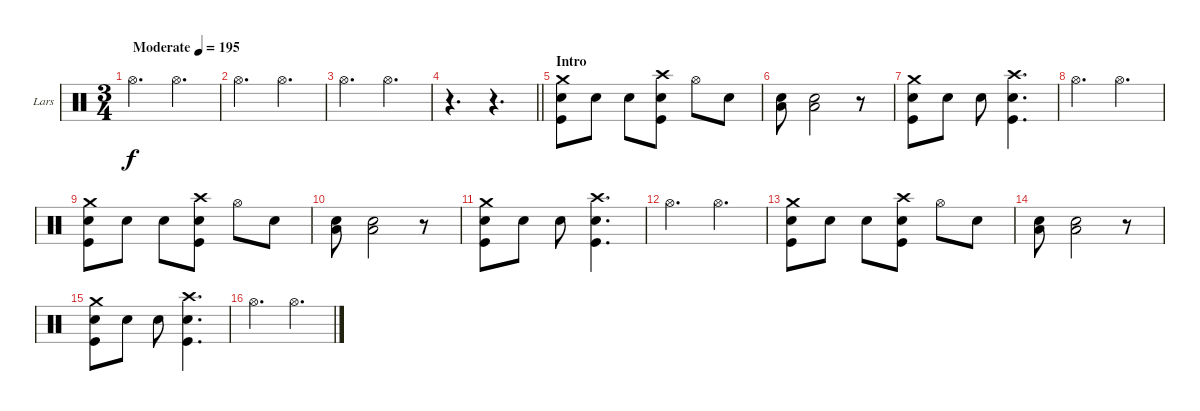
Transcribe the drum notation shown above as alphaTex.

\bracketExtendMode groupsimilarinstruments
\firstSystemTrackNameOrientation horizontal
\otherSystemsTrackNameOrientation horizontal
\track ("Drumkit" "Lars") {instrument percussion}
\staff {score}
\articulation defaults
\ts (3 4)
\beaming (8 2 2 2)
\tempo (195 "Moderate")
\clef neutral
\ks c "Hi-Hat (open)".4{d dy f} "Hi-Hat (open)".4{d}
|
"Hi-Hat (open)".4{d} "Hi-Hat (open)".4{d} |
"Hi-Hat (open)".4{d} "Hi-Hat (open)".4{d} |
\barLineRight lightlight
r.4{d} r.4{d} |
\section ("" "Intro")
("Crash medium (hit)" "Snare (hit) 2" "Kick (hit)").8 "Snare (hit) 2".8 "Snare (hit) 2".8 ("Crash high (hit)" "Snare (hit) 2" "Kick (hit)").8 "Hi-Hat (open)".8 "Snare (hit) 2".8 |
("Snare (hit) 2" "Low Tom (hit)").8 ("Snare (hit) 2" "Low Tom (hit)").2 r.8 |
("Crash medium (hit)" "Snare (hit) 2" "Kick (hit)").8 "Snare (hit) 2".8 "Snare (hit) 2".8 ("Crash high (hit)" "Snare (hit) 2" "Kick (hit)").4{d} |
"Hi-Hat (open)".4{d} "Hi-Hat (open)".4{d} |
("Crash medium (hit)" "Snare (hit) 2" "Kick (hit)").8 "Snare (hit) 2".8 "Snare (hit) 2".8 ("Crash high (hit)" "Snare (hit) 2" "Kick (hit)").8 "Hi-Hat (open)".8 "Snare (hit) 2".8 |
("Snare (hit) 2" "Low Tom (hit)").8 ("Snare (hit) 2" "Low Tom (hit)").2 r.8 |
("Crash medium (hit)" "Snare (hit) 2" "Kick (hit)").8 "Snare (hit) 2".8 "Snare (hit) 2".8 ("Crash high (hit)" "Snare (hit) 2" "Kick (hit)").4{d} |
"Hi-Hat (open)".4{d} "Hi-Hat (open)".4{d} |
("Crash medium (hit)" "Snare (hit) 2" "Kick (hit)").8 "Snare (hit) 2".8 "Snare (hit) 2".8 ("Crash high (hit)" "Snare (hit) 2" "Kick (hit)").8 "Hi-Hat (open)".8 "Snare (hit) 2".8 |
("Snare (hit) 2" "Low Tom (hit)").8 ("Snare (hit) 2" "Low Tom (hit)").2 r.8 |
("Crash medium (hit)" "Snare (hit) 2" "Kick (hit)").8 "Snare (hit) 2".8 "Snare (hit) 2".8 ("Crash high (hit)" "Snare (hit) 2" "Kick (hit)").4{d} |
"Hi-Hat (open)".4{d} "Hi-Hat (open)".4{d}
